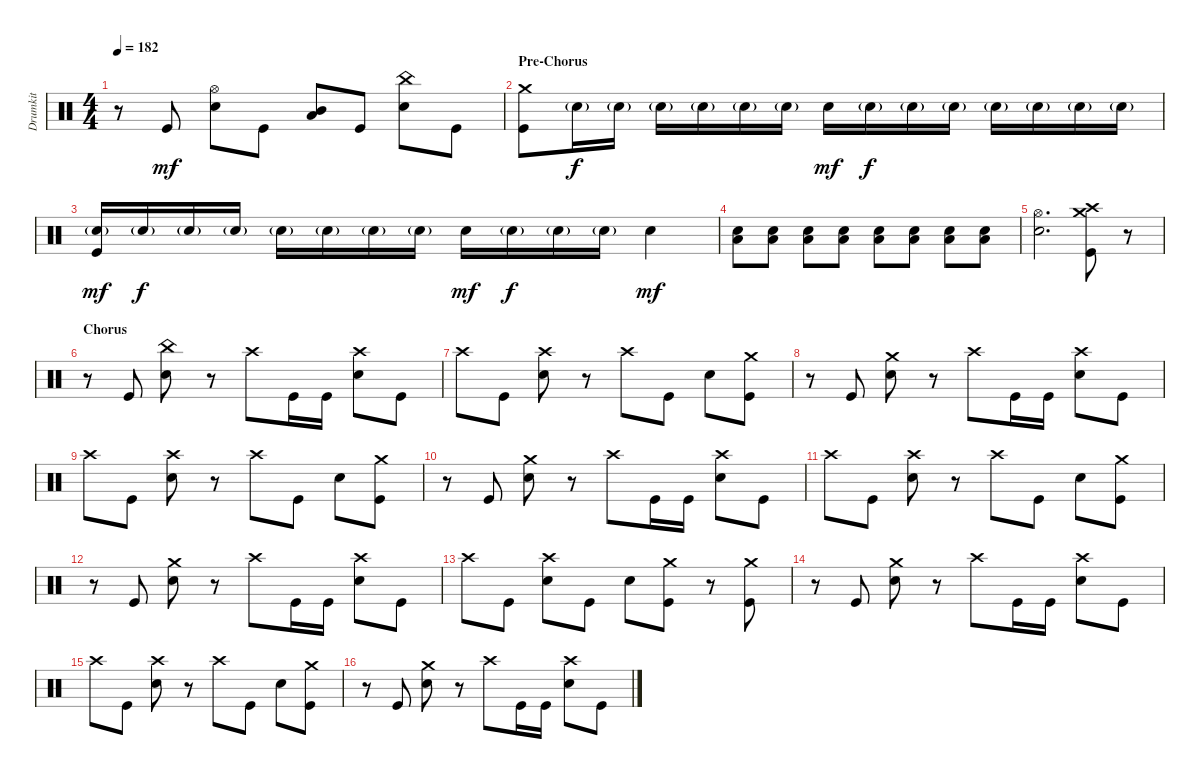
\track ("Drumkit" "Drumkit") {instrument percussion}
\staff {score}
\articulation defaults
\ts (4 4)
\tempo 182
\clef neutral
\ks c
r.8{dy mf} "Kick (hit)".8 ("Snare (hit) 2" "Hi-Hat (open)").8 "Kick (hit)".8 ("Low Tom (hit)" "Mid Tom (hit)").8 "Kick (hit)".8 ("Snare (hit) 2" "China (hit)").8 "Kick (hit)".8 |
\section ("" "Pre-Chorus")
("Kick (hit)" "Crash medium (hit)").8 "Snare (hit) 2"{g}.16{dy f} "Snare (hit) 2"{g}.16 "Snare (hit) 2"{g}.16 "Snare (hit) 2"{g}.16 "Snare (hit) 2"{g}.16 "Snare (hit) 2"{g}.16 "Snare (hit) 2".16{dy mf} "Snare (hit) 2"{g}.16{dy f} "Snare (hit) 2"{g}.16 "Snare (hit) 2"{g}.16 "Snare (hit) 2"{g}.16 "Snare (hit) 2"{g}.16 "Snare (hit) 2"{g}.16 "Snare (hit) 2"{g}.16 |
("Snare (hit) 2"{g} "Kick (hit)").16{dy mf} "Snare (hit) 2"{g}.16{dy f} "Snare (hit) 2"{g}.16 "Snare (hit) 2"{g}.16 "Snare (hit) 2"{g}.16 "Snare (hit) 2"{g}.16 "Snare (hit) 2"{g}.16 "Snare (hit) 2"{g}.16 "Snare (hit) 2".16{dy mf} "Snare (hit) 2"{g}.16{dy f} "Snare (hit) 2"{g}.16 "Snare (hit) 2"{g}.16 "Snare (hit) 2".4{dy mf} |
("Snare (hit) 2" "Low Tom (hit)").8 ("Snare (hit) 2" "Low Tom (hit)").8 ("Snare (hit) 2" "Low Tom (hit)").8 ("Snare (hit) 2" "Low Tom (hit)").8 ("Snare (hit) 2" "Low Tom (hit)").8 ("Snare (hit) 2" "Low Tom (hit)").8 ("Snare (hit) 2" "Low Tom (hit)").8 ("Snare (hit) 2" "Low Tom (hit)").8 |
("Snare (hit) 2" "Hi-Hat (open)").2{d} ("Kick (hit)" "Crash medium (hit)" "Crash high (hit)").8 r.8 |
\section ("" "Chorus")
r.8 "Kick (hit)".8 ("Snare (hit) 2" "China (hit)").8 r.8 "Crash high (hit)".8 "Kick (hit)".16 "Kick (hit)".16 ("Snare (hit) 2" "Crash high (hit)").8 "Kick (hit)".8 |
"Crash high (hit)".8 "Kick (hit)".8 ("Snare (hit) 2" "Crash high (hit)").8 r.8 "Crash high (hit)".8 "Kick (hit)".8 "Snare (hit) 2".8 ("Kick (hit)" "Crash medium (hit)").8 |
r.8 "Kick (hit)".8 ("Snare (hit) 2" "Crash medium (hit)").8 r.8 "Crash high (hit)".8 "Kick (hit)".16 "Kick (hit)".16 ("Snare (hit) 2" "Crash high (hit)").8 "Kick (hit)".8 |
"Crash high (hit)".8 "Kick (hit)".8 ("Snare (hit) 2" "Crash high (hit)").8 r.8 "Crash high (hit)".8 "Kick (hit)".8 "Snare (hit) 2".8 ("Kick (hit)" "Crash medium (hit)").8 |
r.8 "Kick (hit)".8 ("Snare (hit) 2" "Crash medium (hit)").8 r.8 "Crash high (hit)".8 "Kick (hit)".16 "Kick (hit)".16 ("Snare (hit) 2" "Crash high (hit)").8 "Kick (hit)".8 |
"Crash high (hit)".8 "Kick (hit)".8 ("Snare (hit) 2" "Crash high (hit)").8 r.8 "Crash high (hit)".8 "Kick (hit)".8 "Snare (hit) 2".8 ("Kick (hit)" "Crash medium (hit)").8 |
r.8 "Kick (hit)".8 ("Snare (hit) 2" "Crash medium (hit)").8 r.8 "Crash high (hit)".8 "Kick (hit)".16 "Kick (hit)".16 ("Snare (hit) 2" "Crash high (hit)").8 "Kick (hit)".8 |
"Crash high (hit)".8 "Kick (hit)".8 ("Snare (hit) 2" "Crash high (hit)").8 "Kick (hit)".8 "Snare (hit) 2".8 ("Kick (hit)" "Crash medium (hit)").8 r.8 ("Kick (hit)" "Crash medium (hit)").8 |
r.8 "Kick (hit)".8 ("Snare (hit) 2" "Crash medium (hit)").8 r.8 "Crash high (hit)".8 "Kick (hit)".16 "Kick (hit)".16 ("Snare (hit) 2" "Crash high (hit)").8 "Kick (hit)".8 |
"Crash high (hit)".8 "Kick (hit)".8 ("Snare (hit) 2" "Crash high (hit)").8 r.8 "Crash high (hit)".8 "Kick (hit)".8 "Snare (hit) 2".8 ("Kick (hit)" "Crash medium (hit)").8 |
r.8 "Kick (hit)".8 ("Snare (hit) 2" "Crash medium (hit)").8 r.8 "Crash high (hit)".8 "Kick (hit)".16 "Kick (hit)".16 ("Snare (hit) 2" "Crash high (hit)").8 "Kick (hit)".8
